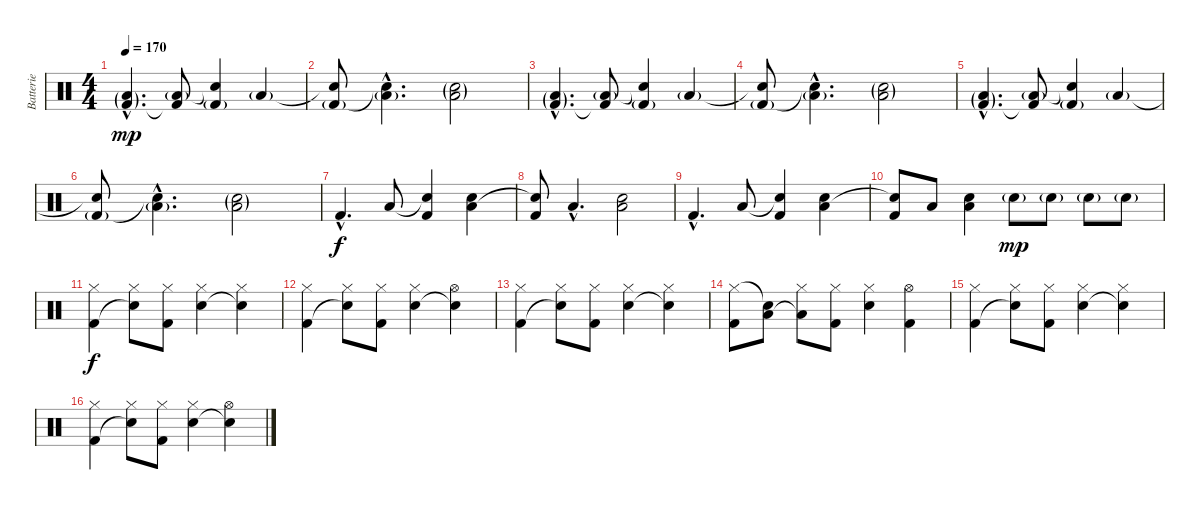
\track ("Batterie" "Batterie") {instrument percussion}
\staff {score}
\articulation defaults
\ts (4 4)
\tempo 170
\clef neutral
\ks c
("Low Tom (hit)"{g hac} "Kick (hit) 2"{g hac}).4{d dy mp} ("Low Tom (hit)"{g} "Kick (hit) 2"{t}).8 ("Snare (hit)"{t} "Kick (hit) 2"{g}).4 "Low Tom (hit)"{g}.4 |
("Snare (hit)"{t} "Kick (hit) 2"{g}).8 ("Low Tom (hit)"{g hac} "Snare (hit)"{hac t}).4{d} ("Snare (hit) 2"{g} "Low Tom (hit)"{g}).2 |
("Low Tom (hit)"{g hac} "Kick (hit) 2"{g hac}).4{d} ("Low Tom (hit)"{g} "Kick (hit) 2"{t}).8 ("Snare (hit)"{t} "Kick (hit) 2"{g}).4 "Low Tom (hit)"{g}.4 |
("Snare (hit)"{t} "Kick (hit) 2"{g}).8 ("Low Tom (hit)"{g hac} "Snare (hit)"{hac t}).4{d} ("Snare (hit) 2"{g} "Low Tom (hit)"{g}).2 |
("Low Tom (hit)"{g hac} "Kick (hit) 2"{g hac}).4{d} ("Low Tom (hit)"{g} "Kick (hit) 2"{t}).8 ("Snare (hit)"{t} "Kick (hit) 2"{g}).4 "Low Tom (hit)"{g}.4 |
("Snare (hit)"{t} "Kick (hit) 2"{g}).8 ("Low Tom (hit)"{g hac} "Snare (hit)"{hac t}).4{d} ("Snare (hit) 2"{g} "Low Tom (hit)"{g}).2 |
"Kick (hit) 2"{hac}.4{d dy f} "Low Tom (hit)".8 ("Snare (hit)"{t} "Kick (hit) 2").4 ("Low Tom (hit)" "Snare (hit) 2").4 |
("Snare (hit)"{t} "Kick (hit) 2").8 "Low Tom (hit)"{hac}.4{d} ("Low Tom (hit)" "Snare (hit) 2").2 |
"Kick (hit) 2"{hac}.4{d} "Low Tom (hit)".8 ("Snare (hit)"{t} "Kick (hit) 2").4 ("Low Tom (hit)" "Snare (hit) 2").4 |
("Snare (hit)"{t} "Kick (hit) 2").8 "Low Tom (hit)".8 ("Low Tom (hit)" "Snare (hit) 2").4 "Snare (hit) 2"{g}.8{dy mp} "Snare (hit) 2"{g}.8 "Snare (hit) 2"{g}.8 "Snare (hit) 2"{g}.8 |
("Kick (hit) 2" "Hi-Hat (closed)").4{dy f} ("Snare (hit)"{t} "Hi-Hat (closed)").8 ("Kick (hit) 2" "Hi-Hat (closed)").8 ("Snare (hit) 2" "Hi-Hat (closed)").4 ("Snare (hit)"{t} "Hi-Hat (closed)").4 |
("Kick (hit) 2" "Hi-Hat (closed)").4 ("Snare (hit)"{t} "Hi-Hat (closed)").8 ("Kick (hit) 2" "Hi-Hat (closed)").8 ("Snare (hit) 2" "Hi-Hat (closed)").4 ("Snare (hit)"{t} "Hi-Hat (open)").4 |
("Kick (hit) 2" "Hi-Hat (closed)").4 ("Snare (hit)"{t} "Hi-Hat (closed)").8 ("Kick (hit) 2" "Hi-Hat (closed)").8 ("Snare (hit) 2" "Hi-Hat (closed)").4 ("Snare (hit)"{t} "Hi-Hat (closed)").4 |
("Kick (hit) 2" "Hi-Hat (closed)").8 ("Low Tom (hit)" "Snare (hit)"{t}).8 ("Low Tom (hit)"{t} "Hi-Hat (closed)").8 ("Kick (hit) 2" "Hi-Hat (closed)").8 ("Snare (hit) 2" "Hi-Hat (closed)").4 ("Kick (hit) 2" "Hi-Hat (open)").4 |
("Kick (hit) 2" "Hi-Hat (closed)").4 ("Snare (hit)"{t} "Hi-Hat (closed)").8 ("Kick (hit) 2" "Hi-Hat (closed)").8 ("Snare (hit) 2" "Hi-Hat (closed)").4 ("Snare (hit)"{t} "Hi-Hat (closed)").4 |
("Kick (hit) 2" "Hi-Hat (closed)").4 ("Snare (hit)"{t} "Hi-Hat (closed)").8 ("Kick (hit) 2" "Hi-Hat (closed)").8 ("Snare (hit) 2" "Hi-Hat (closed)").4 ("Snare (hit)"{t} "Hi-Hat (open)").4
